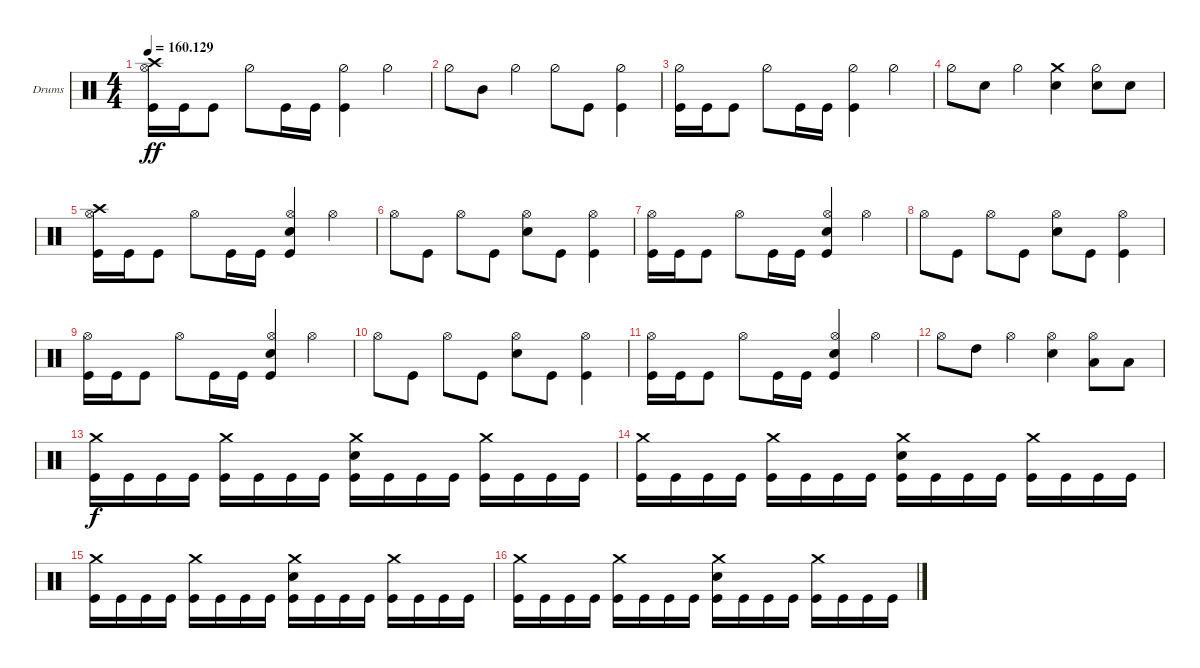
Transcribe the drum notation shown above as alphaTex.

\bracketExtendMode groupsimilarinstruments
\firstSystemTrackNameOrientation horizontal
\otherSystemsTrackNameOrientation horizontal
\track ("Drumkit" "Drums") {instrument percussion}
\staff {score}
\articulation defaults
\ts (4 4)
\tempo
160.129
\accidentals auto
\clef neutral
\ottava regular
\simile none
\ks c
("Kick (hit)" "Hi-Hat (open)" "Crash high (hit)").16{dy ff} "Kick (hit)".16 "Kick (hit)".8 "Hi-Hat (half)".8 "Kick (hit)".16 "Kick (hit)".16 ("Hi-Hat (half)" "Kick (hit)").4 "Hi-Hat (half)".4 |
"Hi-Hat (half)".8 "Mid Tom (hit)".8 "Hi-Hat (half)".4 "Hi-Hat (half)".8 "Kick (hit)".8 ("Hi-Hat (half)" "Kick (hit)").4 |
("Kick (hit)" "Hi-Hat (half)").16 "Kick (hit)".16 "Kick (hit)".8 "Hi-Hat (half)".8 "Kick (hit)".16 "Kick (hit)".16 ("Hi-Hat (half)" "Kick (hit)").4 "Hi-Hat (half)".4 |
"Hi-Hat (half)".8 "Snare (hit) 2".8 "Hi-Hat (half)".4 ("Snare (hit) 2" "Crash medium (hit)").4 ("Hi-Hat (half)" "Snare (hit) 2").8 "Snare (hit) 2".8 |
("Kick (hit)" "Hi-Hat (open)" "Crash high (hit)").16 "Kick (hit)".16 "Kick (hit)".8 "Hi-Hat (open)".8 "Kick (hit)".16 "Kick (hit)".16 ("Hi-Hat (open)" "Kick (hit)" "Snare (hit) 2").4 "Hi-Hat (open)".4 |
"Hi-Hat (open)".8 "Kick (hit)".8 "Hi-Hat (open)".8 "Kick (hit)".8 ("Hi-Hat (open)" "Snare (hit) 2").8 "Kick (hit)".8 ("Hi-Hat (open)" "Kick (hit)").4 |
("Kick (hit)" "Hi-Hat (open)").16 "Kick (hit)".16 "Kick (hit)".8 "Hi-Hat (open)".8 "Kick (hit)".16 "Kick (hit)".16 ("Hi-Hat (open)" "Kick (hit)" "Snare (hit) 2").4 "Hi-Hat (open)".4 |
"Hi-Hat (open)".8 "Kick (hit)".8 "Hi-Hat (open)".8 "Kick (hit)".8 ("Hi-Hat (open)" "Snare (hit) 2").8 "Kick (hit)".8 ("Hi-Hat (open)" "Kick (hit)").4 |
("Kick (hit)" "Hi-Hat (open)").16 "Kick (hit)".16 "Kick (hit)".8 "Hi-Hat (open)".8 "Kick (hit)".16 "Kick (hit)".16 ("Hi-Hat (open)" "Kick (hit)" "Snare (hit) 2").4 "Hi-Hat (open)".4 |
"Hi-Hat (open)".8 "Kick (hit)".8 "Hi-Hat (open)".8 "Kick (hit)".8 ("Hi-Hat (open)" "Snare (hit) 2").8 "Kick (hit)".8 ("Hi-Hat (open)" "Kick (hit)").4 |
("Kick (hit)" "Hi-Hat (open)").16 "Kick (hit)".16 "Kick (hit)".8 "Hi-Hat (open)".8 "Kick (hit)".16 "Kick (hit)".16 ("Hi-Hat (open)" "Kick (hit)" "Snare (hit) 2").4 "Hi-Hat (open)".4 |
"Hi-Hat (open)".8 "High Tom (hit)".8 "Hi-Hat (open)".4 ("Hi-Hat (open)" "Snare (hit) 2").4 ("Low Tom (hit)" "Hi-Hat (open)").8 "Low Tom (hit)".8 |
("Kick (hit)" "Crash medium (hit)").16{dy f} "Kick (hit)".16 "Kick (hit)".16 "Kick (hit)".16 ("Kick (hit)" "Crash medium (hit)").16 "Kick (hit)".16 "Kick (hit)".16 "Kick (hit)".16 ("Kick (hit)" "Crash medium (hit)" "Snare (hit) 2").16 "Kick (hit)".16 "Kick (hit)".16 "Kick (hit)".16 ("Kick (hit)" "Crash medium (hit)").16 "Kick (hit)".16 "Kick (hit)".16 "Kick (hit)".16 |
("Kick (hit)" "Crash medium (hit)").16 "Kick (hit)".16 "Kick (hit)".16 "Kick (hit)".16 ("Kick (hit)" "Crash medium (hit)").16 "Kick (hit)".16 "Kick (hit)".16 "Kick (hit)".16 ("Kick (hit)" "Crash medium (hit)" "Snare (hit) 2").16 "Kick (hit)".16 "Kick (hit)".16 "Kick (hit)".16 ("Kick (hit)" "Crash medium (hit)").16 "Kick (hit)".16 "Kick (hit)".16 "Kick (hit)".16 |
("Kick (hit)" "Crash medium (hit)").16 "Kick (hit)".16 "Kick (hit)".16 "Kick (hit)".16 ("Kick (hit)" "Crash medium (hit)").16 "Kick (hit)".16 "Kick (hit)".16 "Kick (hit)".16 ("Kick (hit)" "Crash medium (hit)" "Snare (hit) 2").16 "Kick (hit)".16 "Kick (hit)".16 "Kick (hit)".16 ("Kick (hit)" "Crash medium (hit)").16 "Kick (hit)".16 "Kick (hit)".16 "Kick (hit)".16 |
("Kick (hit)" "Crash medium (hit)").16 "Kick (hit)".16 "Kick (hit)".16 "Kick (hit)".16 ("Kick (hit)" "Crash medium (hit)").16 "Kick (hit)".16 "Kick (hit)".16 "Kick (hit)".16 ("Kick (hit)" "Crash medium (hit)" "Snare (hit) 2").16 "Kick (hit)".16 "Kick (hit)".16 "Kick (hit)".16 ("Kick (hit)" "Crash medium (hit)").16 "Kick (hit)".16 "Kick (hit)".16 "Kick (hit)".16
